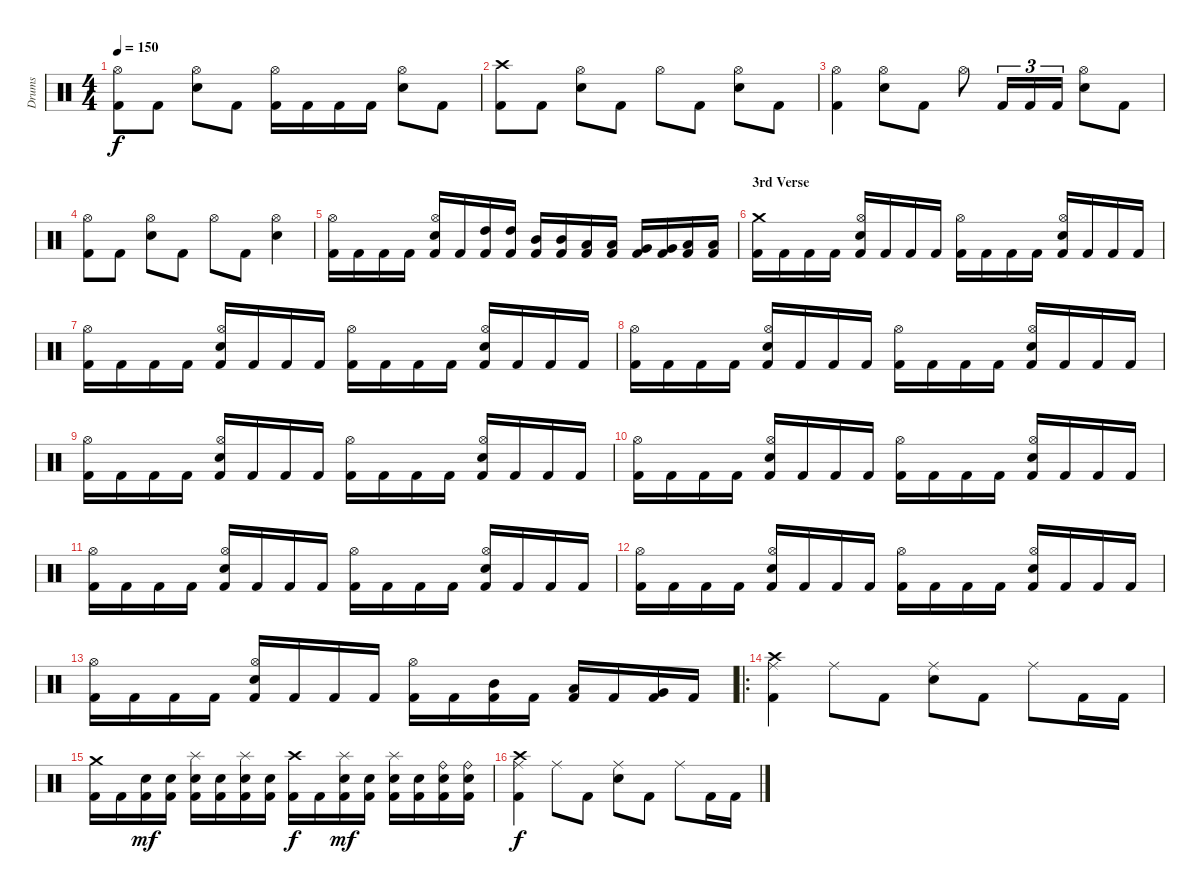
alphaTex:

\track ("Drums" "Drums") {instrument percussion}
\staff {score}
\articulation defaults
\ts (4 4)
\tempo 150
\clef neutral
\ks c
("Kick (hit) 2" "Hi-Hat (open)").8{dy f} "Kick (hit) 2".8 ("Electric Snare (hit)" "Hi-Hat (open)").8 "Kick (hit) 2".8 ("Kick (hit) 2" "Hi-Hat (open)").16 "Kick (hit) 2".16 "Kick (hit) 2".16 "Kick (hit) 2".16 ("Electric Snare (hit)" "Hi-Hat (open)").8 "Kick (hit) 2".8 |
("Kick (hit) 2" "Crash high (hit)").8 "Kick (hit) 2".8 ("Electric Snare (hit)" "Hi-Hat (open)").8 "Kick (hit) 2".8 "Hi-Hat (open)".8 "Kick (hit) 2".8 ("Electric Snare (hit)" "Hi-Hat (open)").8 "Kick (hit) 2".8 |
("Kick (hit) 2" "Hi-Hat (open)").4 ("Electric Snare (hit)" "Hi-Hat (open)").8 "Kick (hit) 2".8 "Hi-Hat (open)".8 "Kick (hit) 2".16{tu (3 2)} "Kick (hit) 2".16{tu (3 2)} "Kick (hit) 2".16{tu (3 2)} ("Electric Snare (hit)" "Hi-Hat (open)").8 "Kick (hit) 2".8 |
("Kick (hit) 2" "Hi-Hat (open)").8 "Kick (hit) 2".8 ("Electric Snare (hit)" "Hi-Hat (open)").8 "Kick (hit) 2".8 "Hi-Hat (open)".8 "Kick (hit) 2".8 ("Electric Snare (hit)" "Hi-Hat (open)").4 |
("Kick (hit) 2" "Hi-Hat (open)").16 "Kick (hit) 2".16 "Kick (hit) 2".16 "Kick (hit) 2".16 ("Kick (hit) 2" "Electric Snare (hit)" "Hi-Hat (open)").16 "Kick (hit) 2".16 ("Kick (hit) 2" "High Tom (hit)").16 ("Kick (hit) 2" "High Tom (hit)").16 ("Kick (hit) 2" "Mid Tom (hit)").16 ("Kick (hit) 2" "Mid Tom (hit)").16 ("Kick (hit) 2" "Low Tom (hit)").16 ("Kick (hit) 2" "Low Tom (hit)").16 ("Kick (hit) 2" "Very Low Tom (hit)").16 ("Kick (hit) 2" "Very Low Tom (hit)").16 ("Kick (hit) 2" "Low Floor Tom (hit)").16 ("Kick (hit) 2" "Low Floor Tom (hit)").16 |
\section ("" "3rd Verse")
("Kick (hit) 2" "Crash medium (hit)").16 "Kick (hit) 2".16 "Kick (hit) 2".16 "Kick (hit) 2".16 ("Kick (hit) 2" "Electric Snare (hit)" "Hi-Hat (open)").16 "Kick (hit) 2".16 "Kick (hit) 2".16 "Kick (hit) 2".16 ("Kick (hit) 2" "Hi-Hat (open)").16 "Kick (hit) 2".16 "Kick (hit) 2".16 "Kick (hit) 2".16 ("Kick (hit) 2" "Electric Snare (hit)" "Hi-Hat (open)").16 "Kick (hit) 2".16 "Kick (hit) 2".16 "Kick (hit) 2".16 |
("Kick (hit) 2" "Hi-Hat (open)").16 "Kick (hit) 2".16 "Kick (hit) 2".16 "Kick (hit) 2".16 ("Kick (hit) 2" "Electric Snare (hit)" "Hi-Hat (open)").16 "Kick (hit) 2".16 "Kick (hit) 2".16 "Kick (hit) 2".16 ("Kick (hit) 2" "Hi-Hat (open)").16 "Kick (hit) 2".16 "Kick (hit) 2".16 "Kick (hit) 2".16 ("Kick (hit) 2" "Electric Snare (hit)" "Hi-Hat (open)").16 "Kick (hit) 2".16 "Kick (hit) 2".16 "Kick (hit) 2".16 |
("Kick (hit) 2" "Hi-Hat (open)").16 "Kick (hit) 2".16 "Kick (hit) 2".16 "Kick (hit) 2".16 ("Kick (hit) 2" "Electric Snare (hit)" "Hi-Hat (open)").16 "Kick (hit) 2".16 "Kick (hit) 2".16 "Kick (hit) 2".16 ("Kick (hit) 2" "Hi-Hat (open)").16 "Kick (hit) 2".16 "Kick (hit) 2".16 "Kick (hit) 2".16 ("Kick (hit) 2" "Electric Snare (hit)" "Hi-Hat (open)").16 "Kick (hit) 2".16 "Kick (hit) 2".16 "Kick (hit) 2".16 |
("Kick (hit) 2" "Hi-Hat (open)").16 "Kick (hit) 2".16 "Kick (hit) 2".16 "Kick (hit) 2".16 ("Kick (hit) 2" "Electric Snare (hit)" "Hi-Hat (open)").16 "Kick (hit) 2".16 "Kick (hit) 2".16 "Kick (hit) 2".16 ("Kick (hit) 2" "Hi-Hat (open)").16 "Kick (hit) 2".16 "Kick (hit) 2".16 "Kick (hit) 2".16 ("Kick (hit) 2" "Electric Snare (hit)" "Hi-Hat (open)").16 "Kick (hit) 2".16 "Kick (hit) 2".16 "Kick (hit) 2".16 |
("Kick (hit) 2" "Hi-Hat (open)").16 "Kick (hit) 2".16 "Kick (hit) 2".16 "Kick (hit) 2".16 ("Kick (hit) 2" "Electric Snare (hit)" "Hi-Hat (open)").16 "Kick (hit) 2".16 "Kick (hit) 2".16 "Kick (hit) 2".16 ("Kick (hit) 2" "Hi-Hat (open)").16 "Kick (hit) 2".16 "Kick (hit) 2".16 "Kick (hit) 2".16 ("Kick (hit) 2" "Electric Snare (hit)" "Hi-Hat (open)").16 "Kick (hit) 2".16 "Kick (hit) 2".16 "Kick (hit) 2".16 |
("Kick (hit) 2" "Hi-Hat (open)").16 "Kick (hit) 2".16 "Kick (hit) 2".16 "Kick (hit) 2".16 ("Kick (hit) 2" "Electric Snare (hit)" "Hi-Hat (open)").16 "Kick (hit) 2".16 "Kick (hit) 2".16 "Kick (hit) 2".16 ("Kick (hit) 2" "Hi-Hat (open)").16 "Kick (hit) 2".16 "Kick (hit) 2".16 "Kick (hit) 2".16 ("Kick (hit) 2" "Electric Snare (hit)" "Hi-Hat (open)").16 "Kick (hit) 2".16 "Kick (hit) 2".16 "Kick (hit) 2".16 |
("Kick (hit) 2" "Hi-Hat (open)").16 "Kick (hit) 2".16 "Kick (hit) 2".16 "Kick (hit) 2".16 ("Kick (hit) 2" "Electric Snare (hit)" "Hi-Hat (open)").16 "Kick (hit) 2".16 "Kick (hit) 2".16 "Kick (hit) 2".16 ("Kick (hit) 2" "Hi-Hat (open)").16 "Kick (hit) 2".16 "Kick (hit) 2".16 "Kick (hit) 2".16 ("Kick (hit) 2" "Electric Snare (hit)" "Hi-Hat (open)").16 "Kick (hit) 2".16 "Kick (hit) 2".16 "Kick (hit) 2".16 |
("Kick (hit) 2" "Hi-Hat (open)").16 "Kick (hit) 2".16 "Kick (hit) 2".16 "Kick (hit) 2".16 ("Kick (hit) 2" "Electric Snare (hit)" "Hi-Hat (open)").16 "Kick (hit) 2".16 "Kick (hit) 2".16 "Kick (hit) 2".16 ("Kick (hit) 2" "Hi-Hat (open)").16 "Kick (hit) 2".16 ("Kick (hit) 2" "Mid Tom (hit)").16 "Kick (hit) 2".16 ("Kick (hit) 2" "Low Tom (hit)").16 "Kick (hit) 2".16 ("Kick (hit) 2" "Very Low Tom (hit)").16 "Kick (hit) 2".16 |
\ro
("Kick (hit) 2" "Ride (middle)" "Crash high (hit)").4 "Ride (middle)".8 "Kick (hit) 2".8 ("Electric Snare (hit)" "Ride (middle)").8 "Kick (hit) 2".8 "Ride (middle)".8 "Kick (hit) 2".16 "Kick (hit) 2".16 |
("Kick (hit) 2" "Crash medium (hit)").16 "Kick (hit) 2".16 ("Kick (hit) 2" "Electric Snare (hit)").16{dy mf} ("Kick (hit) 2" "Electric Snare (hit)").16 ("Kick (hit) 2" "Electric Snare (hit)" "Splash (hit)").16 ("Kick (hit) 2" "Electric Snare (hit)").16 ("Kick (hit) 2" "Electric Snare (hit)" "Splash (hit)").16 ("Kick (hit) 2" "Electric Snare (hit)").16 ("Kick (hit) 2" "Crash high (hit)").16{dy f} "Kick (hit) 2".16 ("Kick (hit) 2" "Electric Snare (hit)" "Splash (hit)").16{dy mf} ("Kick (hit) 2" "Electric Snare (hit)").16 ("Kick (hit) 2" "Electric Snare (hit)" "Splash (hit)").16 ("Kick (hit) 2" "Electric Snare (hit)").16 ("Kick (hit) 2" "Electric Snare (hit)" "Ride (bell)").16 ("Kick (hit) 2" "Electric Snare (hit)" "Ride (bell)").16 |
("Kick (hit) 2" "Ride (middle)" "Crash high (hit)").4{dy f} "Ride (middle)".8 "Kick (hit) 2".8 ("Electric Snare (hit)" "Ride (middle)").8 "Kick (hit) 2".8 "Ride (middle)".8 "Kick (hit) 2".16 "Kick (hit) 2".16
